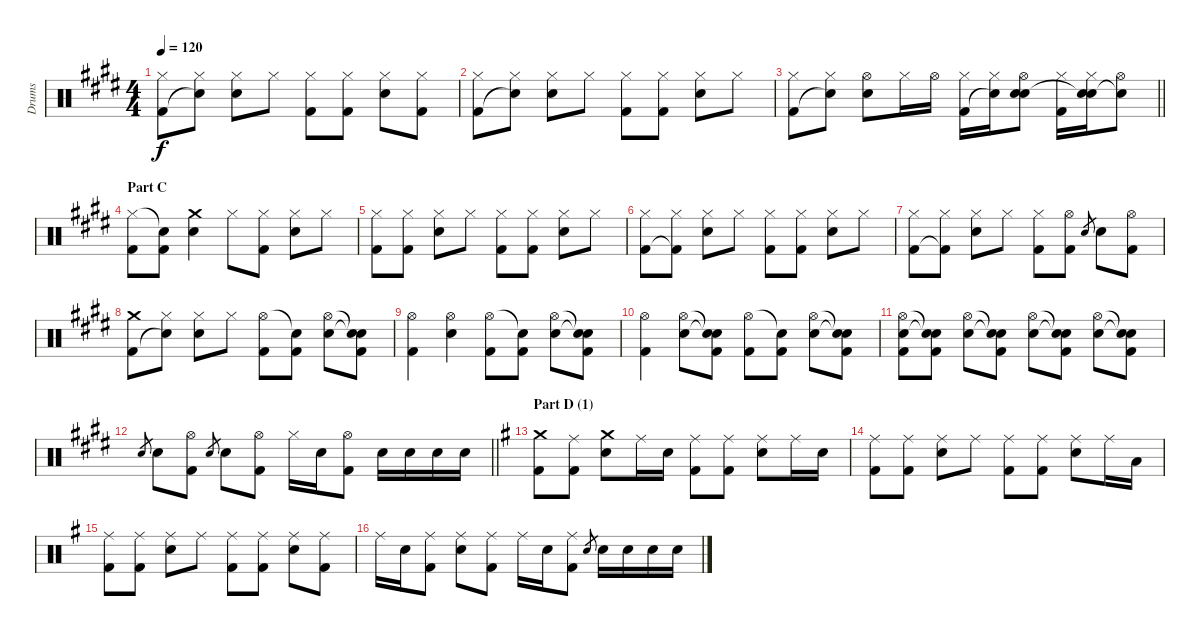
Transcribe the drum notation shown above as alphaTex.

\track ("Drums" "Drums") {instrument percussion}
\staff {score}
\articulation defaults
\ts (4 4)
\tempo 120
\clef neutral
\ks e
("Hi-Hat (closed)" "Kick (hit) 2").8{dy f} ("Hi-Hat (closed)" "Snare (hit)"{t}).8 ("Hi-Hat (closed)" "Electric Snare (hit)").8 "Hi-Hat (closed)".8 ("Hi-Hat (closed)" "Kick (hit) 2").8 ("Hi-Hat (closed)" "Kick (hit) 2").8 ("Hi-Hat (closed)" "Electric Snare (hit)").8 ("Hi-Hat (closed)" "Kick (hit) 2").8 |
("Hi-Hat (closed)" "Kick (hit) 2").8 ("Hi-Hat (closed)" "Snare (hit)"{t}).8 ("Hi-Hat (closed)" "Electric Snare (hit)").8 "Hi-Hat (closed)".8 ("Hi-Hat (closed)" "Kick (hit) 2").8 ("Hi-Hat (closed)" "Kick (hit) 2").8 ("Hi-Hat (closed)" "Electric Snare (hit)").8 "Hi-Hat (closed)".8 |
\barLineRight lightlight
("Hi-Hat (closed)" "Kick (hit) 2").8 ("Hi-Hat (closed)" "Snare (hit)"{t}).8 ("Hi-Hat (open)" "Electric Snare (hit)").8 "Hi-Hat (closed)".16 "Hi-Hat (open)".16 ("Hi-Hat (closed)" "Kick (hit) 2").16 ("Hi-Hat (closed)" "Snare (hit)"{t}).16 ("Hi-Hat (open)" "Electric Snare (hit)" "Snare (hit)").8 ("Hi-Hat (closed)" "Kick (hit) 2").16 ("Hi-Hat (closed)" "Electric Snare (hit)" "Snare (hit)"{t}).16 ("Hi-Hat (open)" "Snare (hit)"{t}).8 |
\section ("" "Part C")
("Hi-Hat (closed)" "Kick (hit) 2").8 ("Snare (hit)"{t} "Kick (hit) 2").8 ("Crash medium (hit)" "Electric Snare (hit)").4 "Hi-Hat (closed)".8 ("Hi-Hat (closed)" "Kick (hit) 2").8 ("Hi-Hat (closed)" "Electric Snare (hit)").8 "Hi-Hat (closed)".8 |
("Hi-Hat (closed)" "Kick (hit) 2").8 ("Hi-Hat (closed)" "Kick (hit) 2").8 ("Hi-Hat (closed)" "Electric Snare (hit)").8 "Hi-Hat (closed)".8 ("Hi-Hat (closed)" "Kick (hit) 2").8 ("Hi-Hat (closed)" "Kick (hit) 2").8 ("Hi-Hat (closed)" "Electric Snare (hit)").8 "Hi-Hat (closed)".8 |
("Hi-Hat (closed)" "Kick (hit) 2").8 ("Hi-Hat (closed)" "Kick (hit) 2"{t}).8 ("Hi-Hat (closed)" "Electric Snare (hit)").8 "Hi-Hat (closed)".8 ("Hi-Hat (closed)" "Kick (hit) 2").8 ("Hi-Hat (closed)" "Kick (hit) 2").8 ("Hi-Hat (closed)" "Electric Snare (hit)").8 "Hi-Hat (closed)".8 |
("Hi-Hat (closed)" "Kick (hit) 2").8 ("Hi-Hat (closed)" "Kick (hit) 2"{t}).8 ("Hi-Hat (closed)" "Electric Snare (hit)").8 "Hi-Hat (closed)".8 ("Hi-Hat (closed)" "Kick (hit) 2").8 ("Hi-Hat (open)" "Kick (hit) 2").8 "Electric Snare (hit)".8{gr} "Electric Snare (hit)".8 ("Hi-Hat (open)" "Kick (hit) 2").8 |
("Crash medium (hit)" "Kick (hit) 2").8 ("Hi-Hat (closed)" "Snare (hit)"{t}).8 ("Hi-Hat (closed)" "Electric Snare (hit)").8 "Hi-Hat (closed)".8 ("Hi-Hat (open)" "Kick (hit) 2").8 ("Snare (hit)"{t} "Kick (hit) 2").8 ("Hi-Hat (open)" "Electric Snare (hit)").8 ("Snare (hit)"{t} "Snare (hit)"{t} "Kick (hit) 2").8 |
("Hi-Hat (open)" "Kick (hit) 2").4 ("Hi-Hat (open)" "Electric Snare (hit)").4 ("Hi-Hat (open)" "Kick (hit) 2").8 ("Snare (hit)"{t} "Kick (hit) 2").8 ("Hi-Hat (open)" "Electric Snare (hit)").8 ("Snare (hit)"{t} "Snare (hit)"{t} "Kick (hit) 2").8 |
("Hi-Hat (open)" "Kick (hit) 2").4 ("Hi-Hat (open)" "Electric Snare (hit)").8 ("Snare (hit)"{t} "Snare (hit)"{t} "Kick (hit) 2").8 ("Hi-Hat (open)" "Kick (hit) 2").8 ("Snare (hit)"{t} "Kick (hit) 2").8 ("Hi-Hat (open)" "Electric Snare (hit)").8 ("Snare (hit)"{t} "Snare (hit)"{t} "Kick (hit) 2").8 |
("Hi-Hat (open)" "Electric Snare (hit)" "Kick (hit) 2").8 ("Snare (hit)"{t} "Snare (hit)"{t} "Kick (hit) 2").8 ("Hi-Hat (open)" "Electric Snare (hit)").8 ("Snare (hit)"{t} "Snare (hit)"{t} "Kick (hit) 2").8 ("Hi-Hat (open)" "Electric Snare (hit)").8 ("Snare (hit)"{t} "Snare (hit)"{t} "Kick (hit) 2").8 ("Hi-Hat (open)" "Electric Snare (hit)").8 ("Snare (hit)"{t} "Snare (hit)"{t} "Kick (hit) 2").8 |
\barLineRight lightlight "Electric Snare (hit)".8{gr} "Electric Snare (hit)".8
("Hi-Hat (open)" "Kick (hit) 2").8 "Electric Snare (hit)".8{gr} "Electric Snare (hit)".8 ("Hi-Hat (open)" "Kick (hit) 2").8 "Hi-Hat (closed)".16 "Electric Snare (hit)".16 ("Hi-Hat (open)" "Kick (hit) 2").8 "Electric Snare (hit)".16 "Electric Snare (hit)".16 "Electric Snare (hit)".16 "Electric Snare (hit)".16 |
\section ("" "Part D (1)")
\ks g
("Crash medium (hit)" "Kick (hit) 2").8 ("Ride (middle)" "Kick (hit) 2").8 ("Crash medium (hit)" "Electric Snare (hit)").8 "Ride (middle)".16 "Electric Snare (hit)".16 ("Ride (middle)" "Kick (hit) 2").8 ("Ride (middle)" "Kick (hit) 2").8 ("Ride (middle)" "Electric Snare (hit)").8 "Ride (middle)".16 "Electric Snare (hit)".16 |
("Ride (middle)" "Kick (hit) 2").8 ("Ride (middle)" "Kick (hit) 2").8 ("Ride (middle)" "Electric Snare (hit)").8 "Ride (middle)".8 ("Ride (middle)" "Kick (hit) 2").8 ("Ride (middle)" "Kick (hit) 2").8 ("Ride (middle)" "Electric Snare (hit)").8 "Ride (middle)".16 "Low Floor Tom (hit)".16 |
("Ride (middle)" "Kick (hit) 2").8 ("Ride (middle)" "Kick (hit) 2").8 ("Ride (middle)" "Electric Snare (hit)").8 "Ride (middle)".8 ("Ride (middle)" "Kick (hit) 2").8 ("Ride (middle)" "Kick (hit) 2").8 ("Ride (middle)" "Electric Snare (hit)").8 ("Ride (middle)" "Kick (hit) 2").8 |
"Ride (middle)".16 "Electric Snare (hit)".16 ("Ride (middle)" "Kick (hit) 2").8 ("Ride (middle)" "Electric Snare (hit)").8 ("Ride (middle)" "Kick (hit) 2").8 "Ride (middle)".16 "Electric Snare (hit)".16 ("Ride (middle)" "Kick (hit) 2").8 "Electric Snare (hit)".8{gr} "Electric Snare (hit)".16 "Electric Snare (hit)".16 "Electric Snare (hit)".16 "Electric Snare (hit)".16
